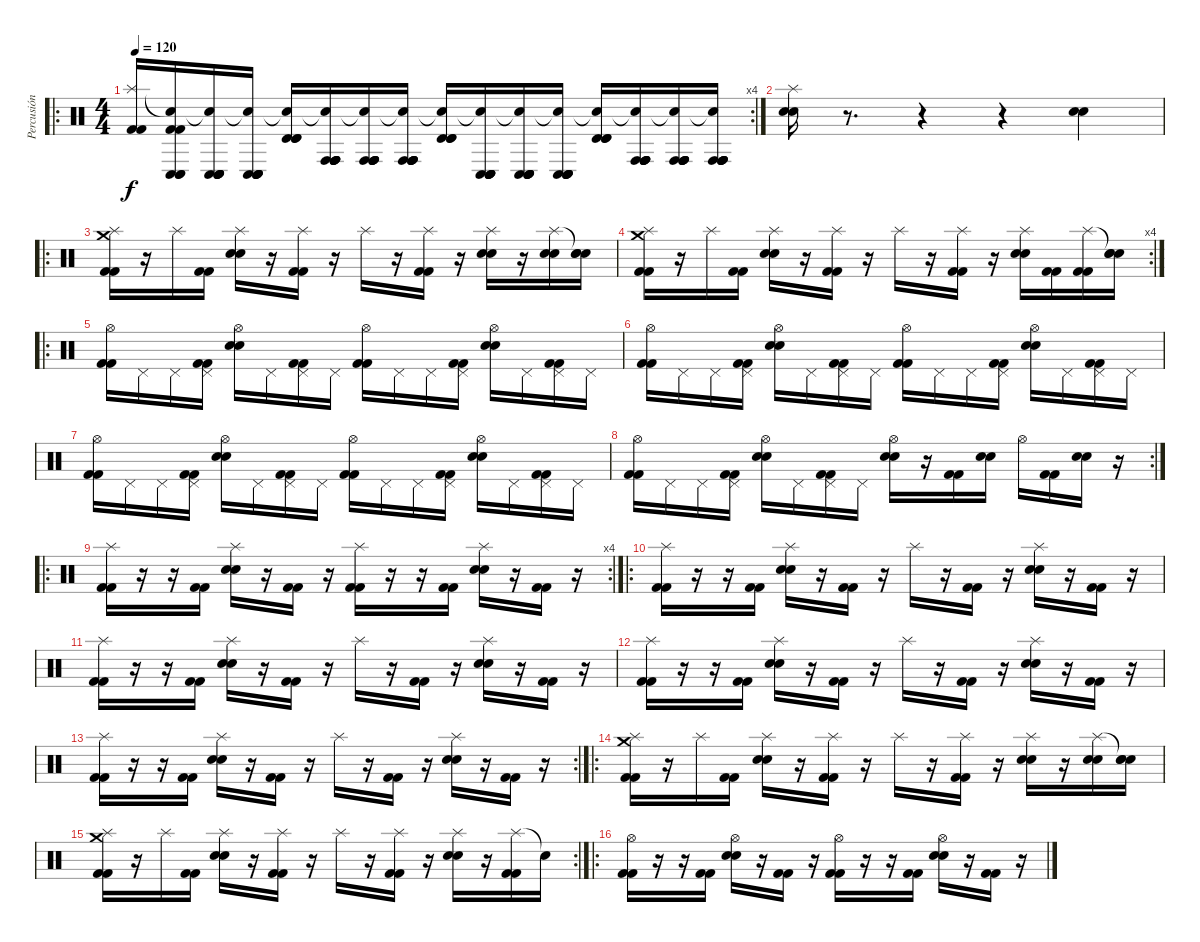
\track ("Percusión" "Percusión") {instrument percussion}
\staff {score}
\articulation defaults
\ro
\rc 4
\ts (4 4)
\tempo 120
\clef neutral
\ks c
("Splash (hit)" "Kick (hit) 2" "Kick (hit) 2").16{dy f} ("Snare (hit)"{t} "Conga low (hit)" "Kick (hit) 2" "Kick (hit) 2" "Conga low (hit)" "Conga low (hit)").16 ("Snare (hit)"{t} "Conga low (hit)" "Conga low (hit)" "Conga low (hit)" "Conga low (hit)" "Conga low (hit)").16 ("Snare (hit)"{t} "Conga low (hit)" "Conga low (hit)" "Conga low (hit)" "Conga low (hit)" "Conga low (hit)").16 ("Snare (hit)"{t} "Timbale high (hit)" "Timbale high (hit)" "Timbale high (hit)").16 ("Snare (hit)"{t} "Conga high (hit)" "Conga high (hit)" "Conga high (hit)" "Conga high (hit)" "Conga high (hit)").16 ("Snare (hit)"{t} "Conga high (hit)" "Conga high (hit)" "Conga high (hit)" "Conga high (hit)" "Conga high (hit)").16 ("Snare (hit)"{t} "Conga high (hit)" "Conga high (hit)" "Conga high (hit)" "Conga high (hit)" "Conga high (hit)").16 ("Snare (hit)"{t} "Timbale high (hit)" "Timbale high (hit)" "Timbale high (hit)").16 ("Snare (hit)"{t} "Conga low (hit)" "Conga low (hit)" "Conga low (hit)" "Conga low (hit)" "Conga low (hit)").16 ("Snare (hit)"{t} "Conga low (hit)" "Conga low (hit)" "Conga low (hit)" "Conga low (hit)" "Conga low (hit)").16 ("Snare (hit)"{t} "Conga low (hit)" "Conga low (hit)" "Conga low (hit)" "Conga low (hit)" "Conga low (hit)").16 ("Snare (hit)"{t} "Timbale high (hit)" "Timbale high (hit)" "Timbale high (hit)").16 ("Snare (hit)"{t} "Conga high (hit)" "Conga high (hit)" "Conga high (hit)" "Conga high (hit)" "Conga high (hit)").16 ("Snare (hit)"{t} "Conga high (hit)" "Conga high (hit)" "Conga high (hit)" "Conga high (hit)" "Conga high (hit)").16 ("Snare (hit)"{t} "Conga high (hit)" "Conga high (hit)" "Conga high (hit)" "Conga high (hit)" "Conga high (hit)").16 |
("Splash (hit)" "Electric Snare (hit)" "Electric Snare (hit)").16 r.8{d} r.4 r.4 ("Electric Snare (hit)" "Electric Snare (hit)").4 |
\ro
("Splash (hit)" "Crash medium (hit)" "Kick (hit) 2" "Kick (hit) 2").16 r.16 "Splash (hit)".16 ("Kick (hit) 2" "Kick (hit) 2").16 ("Splash (hit)" "Electric Snare (hit)" "Electric Snare (hit)").16 r.16 ("Splash (hit)" "Kick (hit) 2" "Kick (hit) 2").16 r.16 "Splash (hit)".16 r.16 ("Splash (hit)" "Kick (hit) 2" "Kick (hit) 2").16 r.16 ("Splash (hit)" "Electric Snare (hit)" "Electric Snare (hit)").16 r.16 ("Splash (hit)" "Electric Snare (hit)" "Electric Snare (hit)").16 ("Snare (hit)"{t} "Electric Snare (hit)" "Electric Snare (hit)").16 |
\rc 4
("Splash (hit)" "Crash medium (hit)" "Kick (hit) 2" "Kick (hit) 2").16 r.16 "Splash (hit)".16 ("Kick (hit) 2" "Kick (hit) 2").16 ("Splash (hit)" "Electric Snare (hit)" "Electric Snare (hit)").16 r.16 ("Splash (hit)" "Kick (hit) 2" "Kick (hit) 2").16 r.16 "Splash (hit)".16 r.16 ("Splash (hit)" "Kick (hit) 2" "Kick (hit) 2").16 r.16 ("Splash (hit)" "Electric Snare (hit)" "Electric Snare (hit)").16 ("Kick (hit) 2" "Kick (hit) 2").16 ("Splash (hit)" "Kick (hit) 2" "Kick (hit) 2").16 ("Snare (hit)"{t} "Electric Snare (hit)" "Electric Snare (hit)").16 |
\ro
("Hi-Hat (open)" "Kick (hit) 2" "Kick (hit) 2").16 "Pedal Hi-Hat (hit)".16 "Pedal Hi-Hat (hit)".16 ("Pedal Hi-Hat (hit)" "Kick (hit) 2" "Kick (hit) 2").16 ("Hi-Hat (open)" "Electric Snare (hit)" "Electric Snare (hit)").16 "Pedal Hi-Hat (hit)".16 ("Pedal Hi-Hat (hit)" "Kick (hit) 2" "Kick (hit) 2").16 "Pedal Hi-Hat (hit)".16 ("Hi-Hat (open)" "Kick (hit) 2" "Kick (hit) 2").16 "Pedal Hi-Hat (hit)".16 "Pedal Hi-Hat (hit)".16 ("Pedal Hi-Hat (hit)" "Kick (hit) 2" "Kick (hit) 2").16 ("Hi-Hat (open)" "Electric Snare (hit)" "Electric Snare (hit)").16 "Pedal Hi-Hat (hit)".16 ("Pedal Hi-Hat (hit)" "Kick (hit) 2" "Kick (hit) 2").16 "Pedal Hi-Hat (hit)".16 |
("Hi-Hat (open)" "Kick (hit) 2" "Kick (hit) 2").16 "Pedal Hi-Hat (hit)".16 "Pedal Hi-Hat (hit)".16 ("Pedal Hi-Hat (hit)" "Kick (hit) 2" "Kick (hit) 2").16 ("Hi-Hat (open)" "Electric Snare (hit)" "Electric Snare (hit)").16 "Pedal Hi-Hat (hit)".16 ("Pedal Hi-Hat (hit)" "Kick (hit) 2" "Kick (hit) 2").16 "Pedal Hi-Hat (hit)".16 ("Hi-Hat (open)" "Kick (hit) 2" "Kick (hit) 2").16 "Pedal Hi-Hat (hit)".16 "Pedal Hi-Hat (hit)".16 ("Pedal Hi-Hat (hit)" "Kick (hit) 2" "Kick (hit) 2").16 ("Hi-Hat (open)" "Electric Snare (hit)" "Electric Snare (hit)").16 "Pedal Hi-Hat (hit)".16 ("Pedal Hi-Hat (hit)" "Kick (hit) 2" "Kick (hit) 2").16 "Pedal Hi-Hat (hit)".16 |
("Hi-Hat (open)" "Kick (hit) 2" "Kick (hit) 2").16 "Pedal Hi-Hat (hit)".16 "Pedal Hi-Hat (hit)".16 ("Pedal Hi-Hat (hit)" "Kick (hit) 2" "Kick (hit) 2").16 ("Hi-Hat (open)" "Electric Snare (hit)" "Electric Snare (hit)").16 "Pedal Hi-Hat (hit)".16 ("Pedal Hi-Hat (hit)" "Kick (hit) 2" "Kick (hit) 2").16 "Pedal Hi-Hat (hit)".16 ("Hi-Hat (open)" "Kick (hit) 2" "Kick (hit) 2").16 "Pedal Hi-Hat (hit)".16 "Pedal Hi-Hat (hit)".16 ("Pedal Hi-Hat (hit)" "Kick (hit) 2" "Kick (hit) 2").16 ("Hi-Hat (open)" "Electric Snare (hit)" "Electric Snare (hit)").16 "Pedal Hi-Hat (hit)".16 ("Pedal Hi-Hat (hit)" "Kick (hit) 2" "Kick (hit) 2").16 "Pedal Hi-Hat (hit)".16 |
\rc 2
("Hi-Hat (open)" "Kick (hit) 2" "Kick (hit) 2").16 "Pedal Hi-Hat (hit)".16 "Pedal Hi-Hat (hit)".16 ("Pedal Hi-Hat (hit)" "Kick (hit) 2" "Kick (hit) 2").16 ("Hi-Hat (open)" "Electric Snare (hit)" "Electric Snare (hit)").16 "Pedal Hi-Hat (hit)".16 ("Pedal Hi-Hat (hit)" "Kick (hit) 2" "Kick (hit) 2").16 "Pedal Hi-Hat (hit)".16 ("Hi-Hat (open)" "Electric Snare (hit)" "Electric Snare (hit)").16 r.16 ("Kick (hit) 2" "Kick (hit) 2").16 ("Electric Snare (hit)" "Electric Snare (hit)").16 "Hi-Hat (open)".16 ("Kick (hit) 2" "Kick (hit) 2").16 ("Electric Snare (hit)" "Electric Snare (hit)").16 r.16 |
\ro
\rc 4
("Splash (hit)" "Kick (hit) 2" "Kick (hit) 2").16 r.16 r.16 ("Kick (hit) 2" "Kick (hit) 2").16 ("Splash (hit)" "Electric Snare (hit)" "Electric Snare (hit)").16 r.16 ("Kick (hit) 2" "Kick (hit) 2").16 r.16 ("Splash (hit)" "Kick (hit) 2" "Kick (hit) 2").16 r.16 r.16 ("Kick (hit) 2" "Kick (hit) 2").16 ("Splash (hit)" "Electric Snare (hit)" "Electric Snare (hit)").16 r.16 ("Kick (hit) 2" "Kick (hit) 2").16 r.16 |
\ro
("Splash (hit)" "Kick (hit) 2" "Kick (hit) 2").16 r.16 r.16 ("Kick (hit) 2" "Kick (hit) 2").16 ("Splash (hit)" "Electric Snare (hit)" "Electric Snare (hit)").16 r.16 ("Kick (hit) 2" "Kick (hit) 2").16 r.16 "Splash (hit)".16 r.16 ("Kick (hit) 2" "Kick (hit) 2").16 r.16 ("Splash (hit)" "Electric Snare (hit)" "Electric Snare (hit)").16 r.16 ("Kick (hit) 2" "Kick (hit) 2").16 r.16 |
("Splash (hit)" "Kick (hit) 2" "Kick (hit) 2").16 r.16 r.16 ("Kick (hit) 2" "Kick (hit) 2").16 ("Splash (hit)" "Electric Snare (hit)" "Electric Snare (hit)").16 r.16 ("Kick (hit) 2" "Kick (hit) 2").16 r.16 "Splash (hit)".16 r.16 ("Kick (hit) 2" "Kick (hit) 2").16 r.16 ("Splash (hit)" "Electric Snare (hit)" "Electric Snare (hit)").16 r.16 ("Kick (hit) 2" "Kick (hit) 2").16 r.16 |
("Splash (hit)" "Kick (hit) 2" "Kick (hit) 2").16 r.16 r.16 ("Kick (hit) 2" "Kick (hit) 2").16 ("Splash (hit)" "Electric Snare (hit)" "Electric Snare (hit)").16 r.16 ("Kick (hit) 2" "Kick (hit) 2").16 r.16 "Splash (hit)".16 r.16 ("Kick (hit) 2" "Kick (hit) 2").16 r.16 ("Splash (hit)" "Electric Snare (hit)" "Electric Snare (hit)").16 r.16 ("Kick (hit) 2" "Kick (hit) 2").16 r.16 |
\rc 2
("Splash (hit)" "Kick (hit) 2" "Kick (hit) 2").16 r.16 r.16 ("Kick (hit) 2" "Kick (hit) 2").16 ("Splash (hit)" "Electric Snare (hit)" "Electric Snare (hit)").16 r.16 ("Kick (hit) 2" "Kick (hit) 2").16 r.16 "Splash (hit)".16 r.16 ("Kick (hit) 2" "Kick (hit) 2").16 r.16 ("Splash (hit)" "Electric Snare (hit)" "Electric Snare (hit)").16 r.16 ("Kick (hit) 2" "Kick (hit) 2").16 r.16 |
\ro
("Splash (hit)" "Crash medium (hit)" "Kick (hit) 2" "Kick (hit) 2").16 r.16 "Splash (hit)".16 ("Kick (hit) 2" "Kick (hit) 2").16 ("Splash (hit)" "Electric Snare (hit)" "Electric Snare (hit)").16 r.16 ("Splash (hit)" "Kick (hit) 2" "Kick (hit) 2").16 r.16 "Splash (hit)".16 r.16 ("Splash (hit)" "Kick (hit) 2" "Kick (hit) 2").16 r.16 ("Splash (hit)" "Electric Snare (hit)" "Electric Snare (hit)").16 r.16 ("Splash (hit)" "Electric Snare (hit)" "Electric Snare (hit)").16 ("Snare (hit)"{t} "Electric Snare (hit)" "Electric Snare (hit)").16 |
\rc 2
("Splash (hit)" "Crash medium (hit)" "Kick (hit) 2" "Kick (hit) 2").16 r.16 "Splash (hit)".16 ("Kick (hit) 2" "Kick (hit) 2").16 ("Splash (hit)" "Electric Snare (hit)" "Electric Snare (hit)").16 r.16 ("Splash (hit)" "Kick (hit) 2" "Kick (hit) 2").16 r.16 "Splash (hit)".16 r.16 ("Splash (hit)" "Kick (hit) 2" "Kick (hit) 2").16 r.16 ("Splash (hit)" "Electric Snare (hit)" "Electric Snare (hit)").16 r.16 ("Splash (hit)" "Kick (hit) 2" "Kick (hit) 2").16 "Snare (hit)"{t}.16 |
\ro
("Hi-Hat (open)" "Kick (hit) 2" "Kick (hit) 2").16 r.16 r.16 ("Kick (hit) 2" "Kick (hit) 2").16 ("Hi-Hat (open)" "Electric Snare (hit)" "Electric Snare (hit)").16 r.16 ("Kick (hit) 2" "Kick (hit) 2").16 r.16 ("Hi-Hat (open)" "Kick (hit) 2" "Kick (hit) 2").16 r.16 r.16 ("Kick (hit) 2" "Kick (hit) 2").16 ("Hi-Hat (open)" "Electric Snare (hit)" "Electric Snare (hit)").16 r.16 ("Kick (hit) 2" "Kick (hit) 2").16 r.16
